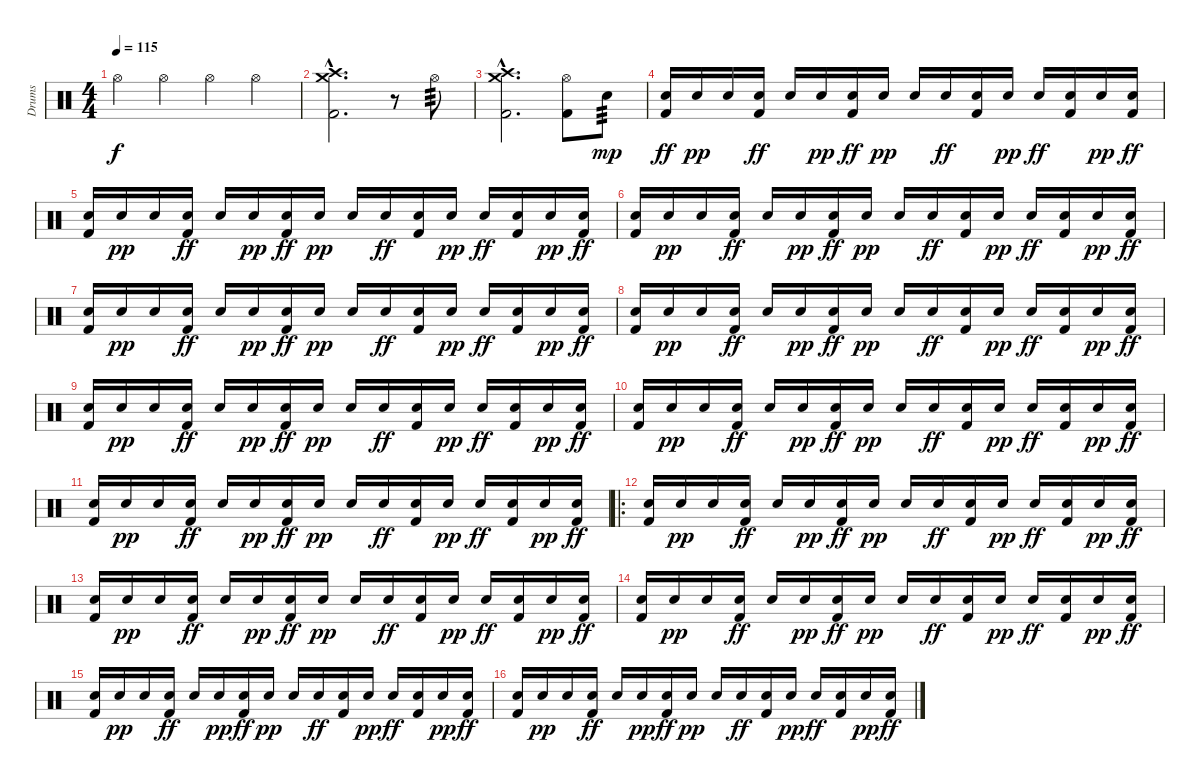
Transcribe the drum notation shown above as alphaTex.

\track ("Drums" "Drums") {instrument percussion}
\staff {score}
\articulation defaults
\ts (4 4)
\tempo 115
\clef neutral
\ks c "Hi-Hat (open)".4{dy f} "Hi-Hat (open)".4 "Hi-Hat (open)".4 "Hi-Hat (open)".4
|
("Crash medium (hit)"{hac} "Crash high (hit)"{hac} "Kick (hit) 2"{hac}).2{d} r.8 "Hi-Hat (open)".8{tp 3} |
("Crash medium (hit)"{hac} "Crash high (hit)"{hac} "Kick (hit) 2"{hac}).2{d} ("Hi-Hat (open)" "Kick (hit) 2").8 "Snare (hit) 2".8{tp 3 dy mp} |
("Snare (hit) 2" "Kick (hit) 2").16{dy ff} "Snare (hit) 2".16{dy pp} "Snare (hit) 2".16 ("Snare (hit) 2" "Kick (hit) 2").16{dy ff} "Snare (hit) 2".16 "Snare (hit) 2".16{dy pp} ("Snare (hit) 2" "Kick (hit) 2").16{dy ff} "Snare (hit) 2".16{dy pp} "Snare (hit) 2".16 "Snare (hit) 2".16{dy ff} ("Snare (hit) 2" "Kick (hit) 2").16 "Snare (hit) 2".16{dy pp} "Snare (hit) 2".16{dy ff} ("Snare (hit) 2" "Kick (hit) 2").16 "Snare (hit) 2".16{dy pp} ("Snare (hit) 2" "Kick (hit) 2").16{dy ff} |
("Snare (hit) 2" "Kick (hit) 2").16 "Snare (hit) 2".16{dy pp} "Snare (hit) 2".16 ("Snare (hit) 2" "Kick (hit) 2").16{dy ff} "Snare (hit) 2".16 "Snare (hit) 2".16{dy pp} ("Snare (hit) 2" "Kick (hit) 2").16{dy ff} "Snare (hit) 2".16{dy pp} "Snare (hit) 2".16 "Snare (hit) 2".16{dy ff} ("Snare (hit) 2" "Kick (hit) 2").16 "Snare (hit) 2".16{dy pp} "Snare (hit) 2".16{dy ff} ("Snare (hit) 2" "Kick (hit) 2").16 "Snare (hit) 2".16{dy pp} ("Snare (hit) 2" "Kick (hit) 2").16{dy ff} |
("Snare (hit) 2" "Kick (hit) 2").16 "Snare (hit) 2".16{dy pp} "Snare (hit) 2".16 ("Snare (hit) 2" "Kick (hit) 2").16{dy ff} "Snare (hit) 2".16 "Snare (hit) 2".16{dy pp} ("Snare (hit) 2" "Kick (hit) 2").16{dy ff} "Snare (hit) 2".16{dy pp} "Snare (hit) 2".16 "Snare (hit) 2".16{dy ff} ("Snare (hit) 2" "Kick (hit) 2").16 "Snare (hit) 2".16{dy pp} "Snare (hit) 2".16{dy ff} ("Snare (hit) 2" "Kick (hit) 2").16 "Snare (hit) 2".16{dy pp} ("Snare (hit) 2" "Kick (hit) 2").16{dy ff} |
("Snare (hit) 2" "Kick (hit) 2").16 "Snare (hit) 2".16{dy pp} "Snare (hit) 2".16 ("Snare (hit) 2" "Kick (hit) 2").16{dy ff} "Snare (hit) 2".16 "Snare (hit) 2".16{dy pp} ("Snare (hit) 2" "Kick (hit) 2").16{dy ff} "Snare (hit) 2".16{dy pp} "Snare (hit) 2".16 "Snare (hit) 2".16{dy ff} ("Snare (hit) 2" "Kick (hit) 2").16 "Snare (hit) 2".16{dy pp} "Snare (hit) 2".16{dy ff} ("Snare (hit) 2" "Kick (hit) 2").16 "Snare (hit) 2".16{dy pp} ("Snare (hit) 2" "Kick (hit) 2").16{dy ff} |
("Snare (hit) 2" "Kick (hit) 2").16 "Snare (hit) 2".16{dy pp} "Snare (hit) 2".16 ("Snare (hit) 2" "Kick (hit) 2").16{dy ff} "Snare (hit) 2".16 "Snare (hit) 2".16{dy pp} ("Snare (hit) 2" "Kick (hit) 2").16{dy ff} "Snare (hit) 2".16{dy pp} "Snare (hit) 2".16 "Snare (hit) 2".16{dy ff} ("Snare (hit) 2" "Kick (hit) 2").16 "Snare (hit) 2".16{dy pp} "Snare (hit) 2".16{dy ff} ("Snare (hit) 2" "Kick (hit) 2").16 "Snare (hit) 2".16{dy pp} ("Snare (hit) 2" "Kick (hit) 2").16{dy ff} |
("Snare (hit) 2" "Kick (hit) 2").16 "Snare (hit) 2".16{dy pp} "Snare (hit) 2".16 ("Snare (hit) 2" "Kick (hit) 2").16{dy ff} "Snare (hit) 2".16 "Snare (hit) 2".16{dy pp} ("Snare (hit) 2" "Kick (hit) 2").16{dy ff} "Snare (hit) 2".16{dy pp} "Snare (hit) 2".16 "Snare (hit) 2".16{dy ff} ("Snare (hit) 2" "Kick (hit) 2").16 "Snare (hit) 2".16{dy pp} "Snare (hit) 2".16{dy ff} ("Snare (hit) 2" "Kick (hit) 2").16 "Snare (hit) 2".16{dy pp} ("Snare (hit) 2" "Kick (hit) 2").16{dy ff} |
("Snare (hit) 2" "Kick (hit) 2").16 "Snare (hit) 2".16{dy pp} "Snare (hit) 2".16 ("Snare (hit) 2" "Kick (hit) 2").16{dy ff} "Snare (hit) 2".16 "Snare (hit) 2".16{dy pp} ("Snare (hit) 2" "Kick (hit) 2").16{dy ff} "Snare (hit) 2".16{dy pp} "Snare (hit) 2".16 "Snare (hit) 2".16{dy ff} ("Snare (hit) 2" "Kick (hit) 2").16 "Snare (hit) 2".16{dy pp} "Snare (hit) 2".16{dy ff} ("Snare (hit) 2" "Kick (hit) 2").16 "Snare (hit) 2".16{dy pp} ("Snare (hit) 2" "Kick (hit) 2").16{dy ff} |
("Snare (hit) 2" "Kick (hit) 2").16 "Snare (hit) 2".16{dy pp} "Snare (hit) 2".16 ("Snare (hit) 2" "Kick (hit) 2").16{dy ff} "Snare (hit) 2".16 "Snare (hit) 2".16{dy pp} ("Snare (hit) 2" "Kick (hit) 2").16{dy ff} "Snare (hit) 2".16{dy pp} "Snare (hit) 2".16 "Snare (hit) 2".16{dy ff} ("Snare (hit) 2" "Kick (hit) 2").16 "Snare (hit) 2".16{dy pp} "Snare (hit) 2".16{dy ff} ("Snare (hit) 2" "Kick (hit) 2").16 "Snare (hit) 2".16{dy pp} ("Snare (hit) 2" "Kick (hit) 2").16{dy ff} |
\ro
("Snare (hit) 2" "Kick (hit) 2").16 "Snare (hit) 2".16{dy pp} "Snare (hit) 2".16 ("Snare (hit) 2" "Kick (hit) 2").16{dy ff} "Snare (hit) 2".16 "Snare (hit) 2".16{dy pp} ("Snare (hit) 2" "Kick (hit) 2").16{dy ff} "Snare (hit) 2".16{dy pp} "Snare (hit) 2".16 "Snare (hit) 2".16{dy ff} ("Snare (hit) 2" "Kick (hit) 2").16 "Snare (hit) 2".16{dy pp} "Snare (hit) 2".16{dy ff} ("Snare (hit) 2" "Kick (hit) 2").16 "Snare (hit) 2".16{dy pp} ("Snare (hit) 2" "Kick (hit) 2").16{dy ff} |
("Snare (hit) 2" "Kick (hit) 2").16 "Snare (hit) 2".16{dy pp} "Snare (hit) 2".16 ("Snare (hit) 2" "Kick (hit) 2").16{dy ff} "Snare (hit) 2".16 "Snare (hit) 2".16{dy pp} ("Snare (hit) 2" "Kick (hit) 2").16{dy ff} "Snare (hit) 2".16{dy pp} "Snare (hit) 2".16 "Snare (hit) 2".16{dy ff} ("Snare (hit) 2" "Kick (hit) 2").16 "Snare (hit) 2".16{dy pp} "Snare (hit) 2".16{dy ff} ("Snare (hit) 2" "Kick (hit) 2").16 "Snare (hit) 2".16{dy pp} ("Snare (hit) 2" "Kick (hit) 2").16{dy ff} |
("Snare (hit) 2" "Kick (hit) 2").16 "Snare (hit) 2".16{dy pp} "Snare (hit) 2".16 ("Snare (hit) 2" "Kick (hit) 2").16{dy ff} "Snare (hit) 2".16 "Snare (hit) 2".16{dy pp} ("Snare (hit) 2" "Kick (hit) 2").16{dy ff} "Snare (hit) 2".16{dy pp} "Snare (hit) 2".16 "Snare (hit) 2".16{dy ff} ("Snare (hit) 2" "Kick (hit) 2").16 "Snare (hit) 2".16{dy pp} "Snare (hit) 2".16{dy ff} ("Snare (hit) 2" "Kick (hit) 2").16 "Snare (hit) 2".16{dy pp} ("Snare (hit) 2" "Kick (hit) 2").16{dy ff} |
("Snare (hit) 2" "Kick (hit) 2").16 "Snare (hit) 2".16{dy pp} "Snare (hit) 2".16 ("Snare (hit) 2" "Kick (hit) 2").16{dy ff} "Snare (hit) 2".16 "Snare (hit) 2".16{dy pp} ("Snare (hit) 2" "Kick (hit) 2").16{dy ff} "Snare (hit) 2".16{dy pp} "Snare (hit) 2".16 "Snare (hit) 2".16{dy ff} ("Snare (hit) 2" "Kick (hit) 2").16 "Snare (hit) 2".16{dy pp} "Snare (hit) 2".16{dy ff} ("Snare (hit) 2" "Kick (hit) 2").16 "Snare (hit) 2".16{dy pp} ("Snare (hit) 2" "Kick (hit) 2").16{dy ff} |
("Snare (hit) 2" "Kick (hit) 2").16 "Snare (hit) 2".16{dy pp} "Snare (hit) 2".16 ("Snare (hit) 2" "Kick (hit) 2").16{dy ff} "Snare (hit) 2".16 "Snare (hit) 2".16{dy pp} ("Snare (hit) 2" "Kick (hit) 2").16{dy ff} "Snare (hit) 2".16{dy pp} "Snare (hit) 2".16 "Snare (hit) 2".16{dy ff} ("Snare (hit) 2" "Kick (hit) 2").16 "Snare (hit) 2".16{dy pp} "Snare (hit) 2".16{dy ff} ("Snare (hit) 2" "Kick (hit) 2").16 "Snare (hit) 2".16{dy pp} ("Snare (hit) 2" "Kick (hit) 2").16{dy ff}
